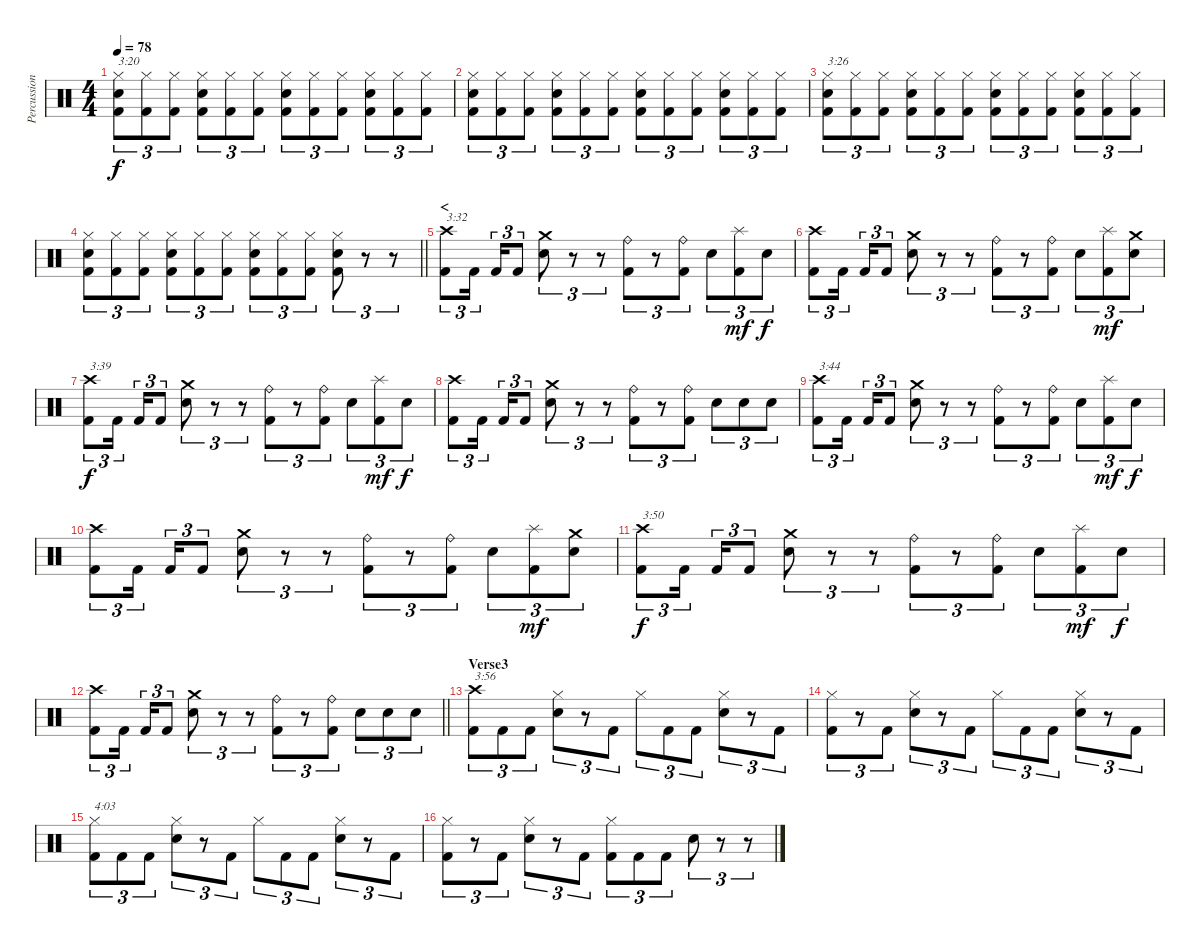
\track ("Percussion" "Percussion") {instrument percussion}
\staff {score}
\articulation defaults
\ts (4 4)
\tempo 78
\clef neutral
\ks c
("Hi-Hat (closed)" "Electric Snare (hit)" "Kick (hit) 2").8{tu (3 2) txt "3:20" dy f} ("Hi-Hat (closed)" "Kick (hit) 2").8{tu (3 2)} ("Hi-Hat (closed)" "Kick (hit) 2").8{tu (3 2)} ("Hi-Hat (closed)" "Electric Snare (hit)" "Kick (hit) 2").8{tu (3 2)} ("Hi-Hat (closed)" "Kick (hit) 2").8{tu (3 2)} ("Hi-Hat (closed)" "Kick (hit) 2").8{tu (3 2)} ("Hi-Hat (closed)" "Electric Snare (hit)" "Kick (hit) 2").8{tu (3 2)} ("Hi-Hat (closed)" "Kick (hit) 2").8{tu (3 2)} ("Hi-Hat (closed)" "Kick (hit) 2").8{tu (3 2)} ("Hi-Hat (closed)" "Electric Snare (hit)" "Kick (hit) 2").8{tu (3 2)} ("Hi-Hat (closed)" "Kick (hit) 2").8{tu (3 2)} ("Hi-Hat (closed)" "Kick (hit) 2").8{tu (3 2)} |
("Hi-Hat (closed)" "Electric Snare (hit)" "Kick (hit) 2").8{tu (3 2)} ("Hi-Hat (closed)" "Kick (hit) 2").8{tu (3 2)} ("Hi-Hat (closed)" "Kick (hit) 2").8{tu (3 2)} ("Hi-Hat (closed)" "Electric Snare (hit)" "Kick (hit) 2").8{tu (3 2)} ("Hi-Hat (closed)" "Kick (hit) 2").8{tu (3 2)} ("Hi-Hat (closed)" "Kick (hit) 2").8{tu (3 2)} ("Hi-Hat (closed)" "Electric Snare (hit)" "Kick (hit) 2").8{tu (3 2)} ("Hi-Hat (closed)" "Kick (hit) 2").8{tu (3 2)} ("Hi-Hat (closed)" "Kick (hit) 2").8{tu (3 2)} ("Hi-Hat (closed)" "Electric Snare (hit)" "Kick (hit) 2").8{tu (3 2)} ("Hi-Hat (closed)" "Kick (hit) 2").8{tu (3 2)} ("Hi-Hat (closed)" "Kick (hit) 2").8{tu (3 2)} |
("Hi-Hat (closed)" "Electric Snare (hit)" "Kick (hit) 2").8{tu (3 2) txt "3:26"} ("Hi-Hat (closed)" "Kick (hit) 2").8{tu (3 2)} ("Hi-Hat (closed)" "Kick (hit) 2").8{tu (3 2)} ("Hi-Hat (closed)" "Electric Snare (hit)" "Kick (hit) 2").8{tu (3 2)} ("Hi-Hat (closed)" "Kick (hit) 2").8{tu (3 2)} ("Hi-Hat (closed)" "Kick (hit) 2").8{tu (3 2)} ("Hi-Hat (closed)" "Electric Snare (hit)" "Kick (hit) 2").8{tu (3 2)} ("Hi-Hat (closed)" "Kick (hit) 2").8{tu (3 2)} ("Hi-Hat (closed)" "Kick (hit) 2").8{tu (3 2)} ("Hi-Hat (closed)" "Electric Snare (hit)" "Kick (hit) 2").8{tu (3 2)} ("Hi-Hat (closed)" "Kick (hit) 2").8{tu (3 2)} ("Hi-Hat (closed)" "Kick (hit) 2").8{tu (3 2)} |
\barLineRight lightlight
("Hi-Hat (closed)" "Electric Snare (hit)" "Kick (hit) 2").8{tu (3 2)} ("Hi-Hat (closed)" "Kick (hit) 2").8{tu (3 2)} ("Hi-Hat (closed)" "Kick (hit) 2").8{tu (3 2)} ("Hi-Hat (closed)" "Electric Snare (hit)" "Kick (hit) 2").8{tu (3 2)} ("Hi-Hat (closed)" "Kick (hit) 2").8{tu (3 2)} ("Hi-Hat (closed)" "Kick (hit) 2").8{tu (3 2)} ("Hi-Hat (closed)" "Electric Snare (hit)" "Kick (hit) 2").8{tu (3 2)} ("Hi-Hat (closed)" "Kick (hit) 2").8{tu (3 2)} ("Hi-Hat (closed)" "Kick (hit) 2").8{tu (3 2)} ("Hi-Hat (closed)" "Electric Snare (hit)" "Kick (hit) 2").8{tu (3 2)} r.8{tu (3 2)} r.8{tu (3 2)} |
\section ("" "<")
("Crash high (hit)" "Kick (hit) 2").8{tu (3 2) txt "3:32"} "Kick (hit) 2".16{tu (3 2)} "Kick (hit) 2".16{tu (3 2)} "Kick (hit) 2".8{tu (3 2)} ("Crash medium (hit)" "Electric Snare (hit)").8{tu (3 2)} r.8{tu (3 2)} r.8{tu (3 2)} ("Ride (bell)" "Kick (hit) 2").8{tu (3 2)} r.8{tu (3 2)} ("Ride (bell)" "Kick (hit) 2").8{tu (3 2)} "Electric Snare (hit)".8{tu (3 2)} ("Splash (hit)" "Kick (hit) 2").8{tu (3 2) dy mf} "Electric Snare (hit)".8{tu (3 2) dy f} |
("Crash high (hit)" "Kick (hit) 2").8{tu (3 2)} "Kick (hit) 2".16{tu (3 2)} "Kick (hit) 2".16{tu (3 2)} "Kick (hit) 2".8{tu (3 2)} ("Crash medium (hit)" "Electric Snare (hit)").8{tu (3 2)} r.8{tu (3 2)} r.8{tu (3 2)} ("Ride (bell)" "Kick (hit) 2").8{tu (3 2)} r.8{tu (3 2)} ("Ride (bell)" "Kick (hit) 2").8{tu (3 2)} "Electric Snare (hit)".8{tu (3 2)} ("Splash (hit)" "Kick (hit) 2").8{tu (3 2) dy mf} ("Crash medium (hit)" "Electric Snare (hit)").8{tu (3 2)} |
("Crash high (hit)" "Kick (hit) 2").8{tu (3 2) txt "3:39" dy f} "Kick (hit) 2".16{tu (3 2)} "Kick (hit) 2".16{tu (3 2)} "Kick (hit) 2".8{tu (3 2)} ("Crash medium (hit)" "Electric Snare (hit)").8{tu (3 2)} r.8{tu (3 2)} r.8{tu (3 2)} ("Ride (bell)" "Kick (hit) 2").8{tu (3 2)} r.8{tu (3 2)} ("Ride (bell)" "Kick (hit) 2").8{tu (3 2)} "Electric Snare (hit)".8{tu (3 2)} ("Splash (hit)" "Kick (hit) 2").8{tu (3 2) dy mf} "Electric Snare (hit)".8{tu (3 2) dy f} |
("Crash high (hit)" "Kick (hit) 2").8{tu (3 2)} "Kick (hit) 2".16{tu (3 2)} "Kick (hit) 2".16{tu (3 2)} "Kick (hit) 2".8{tu (3 2)} ("Crash medium (hit)" "Electric Snare (hit)").8{tu (3 2)} r.8{tu (3 2)} r.8{tu (3 2)} ("Ride (bell)" "Kick (hit) 2").8{tu (3 2)} r.8{tu (3 2)} ("Ride (bell)" "Kick (hit) 2").8{tu (3 2)} "Electric Snare (hit)".8{tu (3 2)} "Electric Snare (hit)".8{tu (3 2)} "Electric Snare (hit)".8{tu (3 2)} |
("Crash high (hit)" "Kick (hit) 2").8{tu (3 2) txt "3:44"} "Kick (hit) 2".16{tu (3 2)} "Kick (hit) 2".16{tu (3 2)} "Kick (hit) 2".8{tu (3 2)} ("Crash medium (hit)" "Electric Snare (hit)").8{tu (3 2)} r.8{tu (3 2)} r.8{tu (3 2)} ("Ride (bell)" "Kick (hit) 2").8{tu (3 2)} r.8{tu (3 2)} ("Ride (bell)" "Kick (hit) 2").8{tu (3 2)} "Electric Snare (hit)".8{tu (3 2)} ("Splash (hit)" "Kick (hit) 2").8{tu (3 2) dy mf} "Electric Snare (hit)".8{tu (3 2) dy f} |
("Crash high (hit)" "Kick (hit) 2").8{tu (3 2)} "Kick (hit) 2".16{tu (3 2)} "Kick (hit) 2".16{tu (3 2)} "Kick (hit) 2".8{tu (3 2)} ("Crash medium (hit)" "Electric Snare (hit)").8{tu (3 2)} r.8{tu (3 2)} r.8{tu (3 2)} ("Ride (bell)" "Kick (hit) 2").8{tu (3 2)} r.8{tu (3 2)} ("Ride (bell)" "Kick (hit) 2").8{tu (3 2)} "Electric Snare (hit)".8{tu (3 2)} ("Splash (hit)" "Kick (hit) 2").8{tu (3 2) dy mf} ("Crash medium (hit)" "Electric Snare (hit)").8{tu (3 2)} |
("Crash high (hit)" "Kick (hit) 2").8{tu (3 2) txt "3:50" dy f} "Kick (hit) 2".16{tu (3 2)} "Kick (hit) 2".16{tu (3 2)} "Kick (hit) 2".8{tu (3 2)} ("Crash medium (hit)" "Electric Snare (hit)").8{tu (3 2)} r.8{tu (3 2)} r.8{tu (3 2)} ("Ride (bell)" "Kick (hit) 2").8{tu (3 2)} r.8{tu (3 2)} ("Ride (bell)" "Kick (hit) 2").8{tu (3 2)} "Electric Snare (hit)".8{tu (3 2)} ("Splash (hit)" "Kick (hit) 2").8{tu (3 2) dy mf} "Electric Snare (hit)".8{tu (3 2) dy f} |
\barLineRight lightlight
("Crash high (hit)" "Kick (hit) 2").8{tu (3 2)} "Kick (hit) 2".16{tu (3 2)} "Kick (hit) 2".16{tu (3 2)} "Kick (hit) 2".8{tu (3 2)} ("Crash medium (hit)" "Electric Snare (hit)").8{tu (3 2)} r.8{tu (3 2)} r.8{tu (3 2)} ("Ride (bell)" "Kick (hit) 2").8{tu (3 2)} r.8{tu (3 2)} ("Ride (bell)" "Kick (hit) 2").8{tu (3 2)} "Electric Snare (hit)".8{tu (3 2)} "Electric Snare (hit)".8{tu (3 2)} "Electric Snare (hit)".8{tu (3 2)} |
\section ("" "Verse3")
("Crash high (hit)" "Kick (hit) 2").8{tu (3 2) txt "3:56"} "Kick (hit) 2".8{tu (3 2)} "Kick (hit) 2".8{tu (3 2)} ("Hi-Hat (closed)" "Electric Snare (hit)").8{tu (3 2)} r.8{tu (3 2)} "Kick (hit) 2".8{tu (3 2)} "Hi-Hat (closed)".8{tu (3 2)} "Kick (hit) 2".8{tu (3 2)} "Kick (hit) 2".8{tu (3 2)} ("Hi-Hat (closed)" "Electric Snare (hit)").8{tu (3 2)} r.8{tu (3 2)} "Kick (hit) 2".8{tu (3 2)} |
("Hi-Hat (closed)" "Kick (hit) 2").8{tu (3 2)} r.8{tu (3 2)} "Kick (hit) 2".8{tu (3 2)} ("Hi-Hat (closed)" "Electric Snare (hit)").8{tu (3 2)} r.8{tu (3 2)} "Kick (hit) 2".8{tu (3 2)} "Hi-Hat (closed)".8{tu (3 2)} "Kick (hit) 2".8{tu (3 2)} "Kick (hit) 2".8{tu (3 2)} ("Hi-Hat (closed)" "Electric Snare (hit)").8{tu (3 2)} r.8{tu (3 2)} "Kick (hit) 2".8{tu (3 2)} |
("Hi-Hat (closed)" "Kick (hit) 2").8{tu (3 2) txt "4:03"} "Kick (hit) 2".8{tu (3 2)} "Kick (hit) 2".8{tu (3 2)} ("Hi-Hat (closed)" "Electric Snare (hit)").8{tu (3 2)} r.8{tu (3 2)} "Kick (hit) 2".8{tu (3 2)} "Hi-Hat (closed)".8{tu (3 2)} "Kick (hit) 2".8{tu (3 2)} "Kick (hit) 2".8{tu (3 2)} ("Hi-Hat (closed)" "Electric Snare (hit)").8{tu (3 2)} r.8{tu (3 2)} "Kick (hit) 2".8{tu (3 2)} |
("Hi-Hat (closed)" "Kick (hit) 2").8{tu (3 2)} r.8{tu (3 2)} "Kick (hit) 2".8{tu (3 2)} ("Hi-Hat (closed)" "Electric Snare (hit)").8{tu (3 2)} r.8{tu (3 2)} "Kick (hit) 2".8{tu (3 2)} ("Hi-Hat (closed)" "Kick (hit) 2").8{tu (3 2)} "Kick (hit) 2".8{tu (3 2)} "Kick (hit) 2".8{tu (3 2)} "Electric Snare (hit)".8{tu (3 2)} r.8{tu (3 2)} r.8{tu (3 2)}
